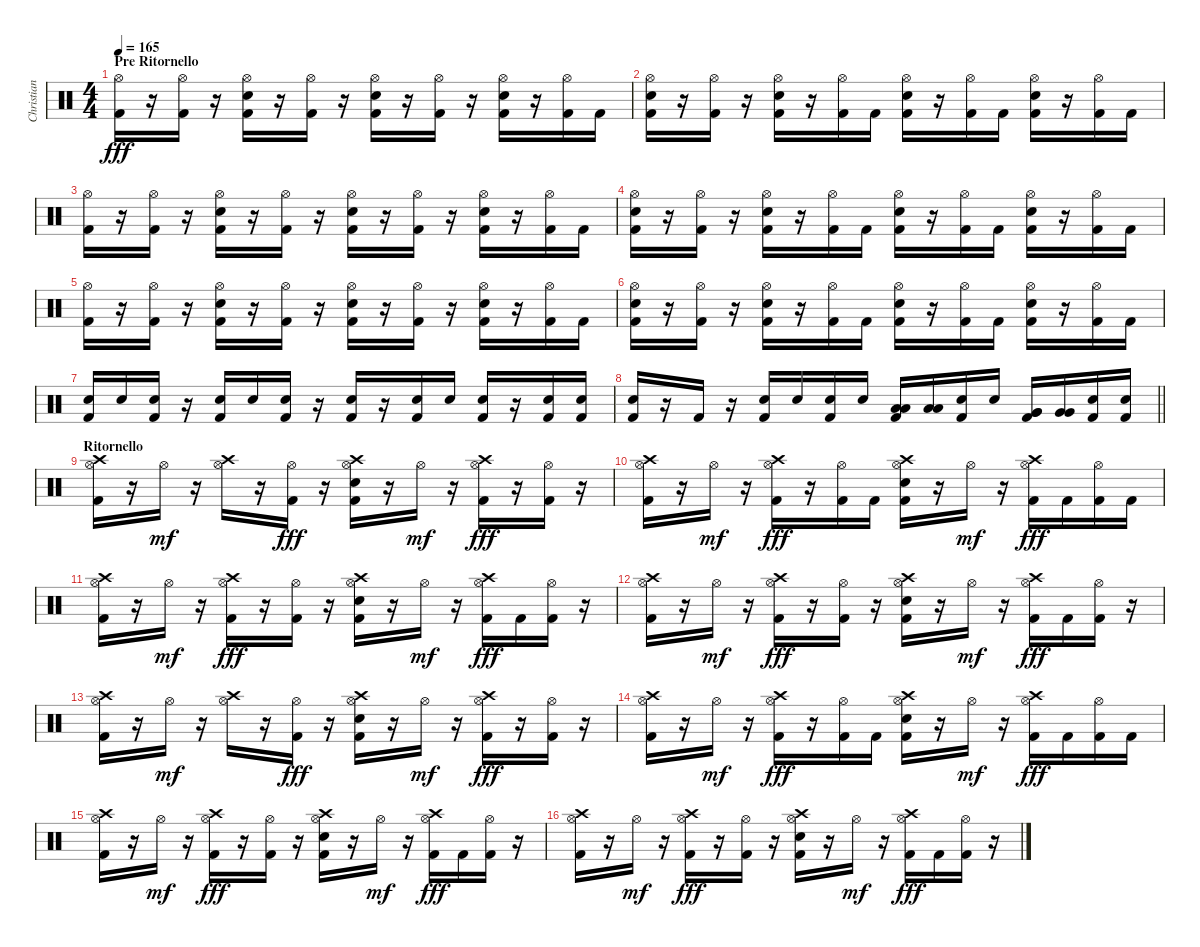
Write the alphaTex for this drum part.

\track ("Christian Coma Mora (CC)" "Christian ") {instrument percussion}
\staff {score}
\articulation defaults
\ts (4 4)
\section ("" "Pre Ritornello")
\tempo 165
\clef neutral
\ks c
("Hi-Hat (open)" "Kick (hit) 2").16{dy fff} r.16 ("Hi-Hat (open)" "Kick (hit) 2").16 r.16 ("Hi-Hat (open)" "Snare (hit) 2" "Kick (hit) 2").16 r.16 ("Hi-Hat (open)" "Kick (hit) 2").16 r.16 ("Hi-Hat (open)" "Snare (hit) 2" "Kick (hit) 2").16 r.16 ("Hi-Hat (open)" "Kick (hit) 2").16 r.16 ("Hi-Hat (open)" "Snare (hit) 2" "Kick (hit) 2").16 r.16 ("Hi-Hat (open)" "Kick (hit) 2").16 "Kick (hit) 2".16 |
("Hi-Hat (open)" "Snare (hit) 2" "Kick (hit) 2").16 r.16 ("Hi-Hat (open)" "Kick (hit) 2").16 r.16 ("Hi-Hat (open)" "Snare (hit) 2" "Kick (hit) 2").16 r.16 ("Hi-Hat (open)" "Kick (hit) 2").16 "Kick (hit) 2".16 ("Hi-Hat (open)" "Snare (hit) 2" "Kick (hit) 2").16 r.16 ("Hi-Hat (open)" "Kick (hit) 2").16 "Kick (hit) 2".16 ("Hi-Hat (open)" "Snare (hit) 2" "Kick (hit) 2").16 r.16 ("Hi-Hat (open)" "Kick (hit) 2").16 "Kick (hit) 2".16 |
("Hi-Hat (open)" "Kick (hit) 2").16 r.16 ("Hi-Hat (open)" "Kick (hit) 2").16 r.16 ("Hi-Hat (open)" "Snare (hit) 2" "Kick (hit) 2").16 r.16 ("Hi-Hat (open)" "Kick (hit) 2").16 r.16 ("Hi-Hat (open)" "Snare (hit) 2" "Kick (hit) 2").16 r.16 ("Hi-Hat (open)" "Kick (hit) 2").16 r.16 ("Hi-Hat (open)" "Snare (hit) 2" "Kick (hit) 2").16 r.16 ("Hi-Hat (open)" "Kick (hit) 2").16 "Kick (hit) 2".16 |
("Hi-Hat (open)" "Snare (hit) 2" "Kick (hit) 2").16 r.16 ("Hi-Hat (open)" "Kick (hit) 2").16 r.16 ("Hi-Hat (open)" "Snare (hit) 2" "Kick (hit) 2").16 r.16 ("Hi-Hat (open)" "Kick (hit) 2").16 "Kick (hit) 2".16 ("Hi-Hat (open)" "Snare (hit) 2" "Kick (hit) 2").16 r.16 ("Hi-Hat (open)" "Kick (hit) 2").16 "Kick (hit) 2".16 ("Hi-Hat (open)" "Snare (hit) 2" "Kick (hit) 2").16 r.16 ("Hi-Hat (open)" "Kick (hit) 2").16 "Kick (hit) 2".16 |
("Hi-Hat (open)" "Kick (hit) 2").16 r.16 ("Hi-Hat (open)" "Kick (hit) 2").16 r.16 ("Hi-Hat (open)" "Snare (hit) 2" "Kick (hit) 2").16 r.16 ("Hi-Hat (open)" "Kick (hit) 2").16 r.16 ("Hi-Hat (open)" "Snare (hit) 2" "Kick (hit) 2").16 r.16 ("Hi-Hat (open)" "Kick (hit) 2").16 r.16 ("Hi-Hat (open)" "Snare (hit) 2" "Kick (hit) 2").16 r.16 ("Hi-Hat (open)" "Kick (hit) 2").16 "Kick (hit) 2".16 |
("Hi-Hat (open)" "Snare (hit) 2" "Kick (hit) 2").16 r.16 ("Hi-Hat (open)" "Kick (hit) 2").16 r.16 ("Hi-Hat (open)" "Snare (hit) 2" "Kick (hit) 2").16 r.16 ("Hi-Hat (open)" "Kick (hit) 2").16 "Kick (hit) 2".16 ("Hi-Hat (open)" "Snare (hit) 2" "Kick (hit) 2").16 r.16 ("Hi-Hat (open)" "Kick (hit) 2").16 "Kick (hit) 2".16 ("Hi-Hat (open)" "Snare (hit) 2" "Kick (hit) 2").16 r.16 ("Hi-Hat (open)" "Kick (hit) 2").16 "Kick (hit) 2".16 |
("Snare (hit) 2" "Kick (hit) 2").16 "Snare (hit) 2".16 ("Snare (hit) 2" "Kick (hit) 2").16 r.16 ("Snare (hit) 2" "Kick (hit) 2").16 "Snare (hit) 2".16 ("Snare (hit) 2" "Kick (hit) 2").16 r.16 ("Snare (hit) 2" "Kick (hit) 2").16 r.16 ("Snare (hit) 2" "Kick (hit) 2").16 "Snare (hit) 2".16 ("Snare (hit) 2" "Kick (hit) 2").16 r.16 ("Snare (hit) 2" "Kick (hit) 2").16 ("Snare (hit) 2" "Kick (hit) 2").16 |
\barLineRight lightlight
("Snare (hit) 2" "Kick (hit) 2").16 r.16 "Kick (hit) 2".16 r.16 ("Snare (hit) 2" "Kick (hit) 2").16 "Snare (hit) 2".16 ("Snare (hit) 2" "Kick (hit) 2").16 "Snare (hit) 2".16 ("Low Tom (hit)" "Low Tom (hit)" "Kick (hit) 2").16 ("Low Tom (hit)" "Low Tom (hit)").16 ("Snare (hit) 2" "Kick (hit) 2").16 "Snare (hit) 2".16 ("Very Low Tom (hit)" "Very Low Tom (hit)" "Kick (hit) 2").16 ("Very Low Tom (hit)" "Very Low Tom (hit)").16 ("Snare (hit) 2" "Kick (hit) 2").16 ("Snare (hit) 2" "Kick (hit) 2").16 |
\section ("" "Ritornello")
("Crash high (hit)" "Hi-Hat (open)" "Kick (hit) 2").16 r.16 "Hi-Hat (open)".16{dy mf} r.16 ("Crash high (hit)" "Hi-Hat (open)").16 r.16 ("Hi-Hat (open)" "Kick (hit) 2").16{dy fff} r.16 ("Crash high (hit)" "Hi-Hat (open)" "Snare (hit) 2" "Kick (hit) 2").16 r.16 "Hi-Hat (open)".16{dy mf} r.16 ("Crash high (hit)" "Hi-Hat (open)" "Kick (hit) 2").16{dy fff} r.16 ("Hi-Hat (open)" "Kick (hit) 2").16 r.16 |
("Crash high (hit)" "Hi-Hat (open)" "Kick (hit) 2").16 r.16 "Hi-Hat (open)".16{dy mf} r.16 ("Crash high (hit)" "Hi-Hat (open)" "Kick (hit) 2").16{dy fff} r.16 ("Hi-Hat (open)" "Kick (hit) 2").16 "Kick (hit) 2".16 ("Crash high (hit)" "Hi-Hat (open)" "Snare (hit) 2" "Kick (hit) 2").16 r.16 "Hi-Hat (open)".16{dy mf} r.16 ("Crash high (hit)" "Hi-Hat (open)" "Kick (hit) 2").16{dy fff} "Kick (hit) 2".16 ("Hi-Hat (open)" "Kick (hit) 2").16 "Kick (hit) 2".16 |
("Crash high (hit)" "Hi-Hat (open)" "Kick (hit) 2").16 r.16 "Hi-Hat (open)".16{dy mf} r.16 ("Crash high (hit)" "Hi-Hat (open)" "Kick (hit) 2").16{dy fff} r.16 ("Hi-Hat (open)" "Kick (hit) 2").16 r.16 ("Crash high (hit)" "Hi-Hat (open)" "Snare (hit) 2" "Kick (hit) 2").16 r.16 "Hi-Hat (open)".16{dy mf} r.16 ("Crash high (hit)" "Hi-Hat (open)" "Kick (hit) 2").16{dy fff} "Kick (hit) 2".16 ("Hi-Hat (open)" "Kick (hit) 2").16 r.16 |
("Crash high (hit)" "Hi-Hat (open)" "Kick (hit) 2").16 r.16 "Hi-Hat (open)".16{dy mf} r.16 ("Crash high (hit)" "Hi-Hat (open)" "Kick (hit) 2").16{dy fff} r.16 ("Hi-Hat (open)" "Kick (hit) 2").16 r.16 ("Crash high (hit)" "Hi-Hat (open)" "Snare (hit) 2" "Kick (hit) 2").16 r.16 "Hi-Hat (open)".16{dy mf} r.16 ("Crash high (hit)" "Hi-Hat (open)" "Kick (hit) 2").16{dy fff} "Kick (hit) 2".16 ("Hi-Hat (open)" "Kick (hit) 2").16 r.16 |
("Crash high (hit)" "Hi-Hat (open)" "Kick (hit) 2").16 r.16 "Hi-Hat (open)".16{dy mf} r.16 ("Crash high (hit)" "Hi-Hat (open)").16 r.16 ("Hi-Hat (open)" "Kick (hit) 2").16{dy fff} r.16 ("Crash high (hit)" "Hi-Hat (open)" "Snare (hit) 2" "Kick (hit) 2").16 r.16 "Hi-Hat (open)".16{dy mf} r.16 ("Crash high (hit)" "Hi-Hat (open)" "Kick (hit) 2").16{dy fff} r.16 ("Hi-Hat (open)" "Kick (hit) 2").16 r.16 |
("Crash high (hit)" "Hi-Hat (open)" "Kick (hit) 2").16 r.16 "Hi-Hat (open)".16{dy mf} r.16 ("Crash high (hit)" "Hi-Hat (open)" "Kick (hit) 2").16{dy fff} r.16 ("Hi-Hat (open)" "Kick (hit) 2").16 "Kick (hit) 2".16 ("Crash high (hit)" "Hi-Hat (open)" "Snare (hit) 2" "Kick (hit) 2").16 r.16 "Hi-Hat (open)".16{dy mf} r.16 ("Crash high (hit)" "Hi-Hat (open)" "Kick (hit) 2").16{dy fff} "Kick (hit) 2".16 ("Hi-Hat (open)" "Kick (hit) 2").16 "Kick (hit) 2".16 |
("Crash high (hit)" "Hi-Hat (open)" "Kick (hit) 2").16 r.16 "Hi-Hat (open)".16{dy mf} r.16 ("Crash high (hit)" "Hi-Hat (open)" "Kick (hit) 2").16{dy fff} r.16 ("Hi-Hat (open)" "Kick (hit) 2").16 r.16 ("Crash high (hit)" "Hi-Hat (open)" "Snare (hit) 2" "Kick (hit) 2").16 r.16 "Hi-Hat (open)".16{dy mf} r.16 ("Crash high (hit)" "Hi-Hat (open)" "Kick (hit) 2").16{dy fff} "Kick (hit) 2".16 ("Hi-Hat (open)" "Kick (hit) 2").16 r.16 |
("Crash high (hit)" "Hi-Hat (open)" "Kick (hit) 2").16 r.16 "Hi-Hat (open)".16{dy mf} r.16 ("Crash high (hit)" "Hi-Hat (open)" "Kick (hit) 2").16{dy fff} r.16 ("Hi-Hat (open)" "Kick (hit) 2").16 r.16 ("Crash high (hit)" "Hi-Hat (open)" "Snare (hit) 2" "Kick (hit) 2").16 r.16 "Hi-Hat (open)".16{dy mf} r.16 ("Crash high (hit)" "Hi-Hat (open)" "Kick (hit) 2").16{dy fff} "Kick (hit) 2".16 ("Hi-Hat (open)" "Kick (hit) 2").16 r.16
